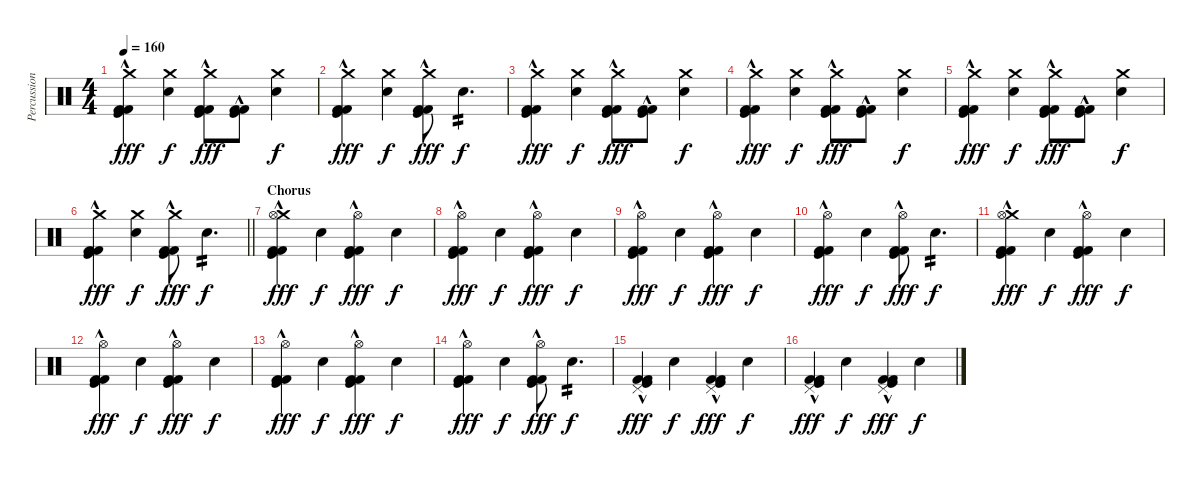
\track ("Percussion" "Percussion") {instrument percussion}
\staff {score}
\articulation defaults
\ts (4 4)
\tempo 160
\clef neutral
\ks c
("Crash medium (hit)" "Kick (hit) 2"{hac} "Kick (hit)"{hac} "Kick (hit) 2").4{dy fff} ("Crash medium (hit)" "Snare (hit) 2").4{dy f} ("Crash medium (hit)" "Kick (hit) 2"{hac} "Kick (hit)"{hac} "Kick (hit) 2").8{dy fff} ("Kick (hit) 2"{hac} "Kick (hit)"{hac} "Kick (hit) 2").8 ("Crash medium (hit)" "Snare (hit) 2").4{dy f} |
("Crash medium (hit)" "Kick (hit) 2"{hac} "Kick (hit)"{hac} "Kick (hit) 2").4{dy fff} ("Crash medium (hit)" "Snare (hit) 2").4{dy f} ("Crash medium (hit)" "Kick (hit) 2"{hac} "Kick (hit)"{hac} "Kick (hit) 2").8{dy fff} "Snare (hit) 2".4{d tp 2 dy f} |
("Crash medium (hit)" "Kick (hit) 2"{hac} "Kick (hit)"{hac} "Kick (hit) 2").4{dy fff} ("Crash medium (hit)" "Snare (hit) 2").4{dy f} ("Crash medium (hit)" "Kick (hit) 2"{hac} "Kick (hit)"{hac} "Kick (hit) 2").8{dy fff} ("Kick (hit) 2"{hac} "Kick (hit)"{hac} "Kick (hit) 2").8 ("Crash medium (hit)" "Snare (hit) 2").4{dy f} |
("Crash medium (hit)" "Kick (hit) 2"{hac} "Kick (hit)"{hac} "Kick (hit) 2").4{dy fff} ("Crash medium (hit)" "Snare (hit) 2").4{dy f} ("Crash medium (hit)" "Kick (hit) 2"{hac} "Kick (hit)"{hac} "Kick (hit) 2").8{dy fff} ("Kick (hit) 2"{hac} "Kick (hit)"{hac} "Kick (hit) 2").8 ("Crash medium (hit)" "Snare (hit) 2").4{dy f} |
("Crash medium (hit)" "Kick (hit) 2"{hac} "Kick (hit)"{hac} "Kick (hit) 2").4{dy fff} ("Crash medium (hit)" "Snare (hit) 2").4{dy f} ("Crash medium (hit)" "Kick (hit) 2"{hac} "Kick (hit)"{hac} "Kick (hit) 2").8{dy fff} ("Kick (hit) 2"{hac} "Kick (hit)"{hac} "Kick (hit) 2").8 ("Crash medium (hit)" "Snare (hit) 2").4{dy f} |
\barLineRight lightlight
("Crash medium (hit)" "Kick (hit) 2"{hac} "Kick (hit)"{hac} "Kick (hit) 2").4{dy fff} ("Crash medium (hit)" "Snare (hit) 2").4{dy f} ("Crash medium (hit)" "Kick (hit) 2"{hac} "Kick (hit)"{hac} "Kick (hit) 2").8{dy fff} "Snare (hit) 2".4{d tp 2 dy f} |
\section ("" "Chorus")
("Crash medium (hit)" "Hi-Hat (open)" "Kick (hit) 2"{hac} "Kick (hit)"{hac} "Kick (hit) 2").4{dy fff} "Snare (hit) 2".4{dy f} ("Hi-Hat (open)" "Kick (hit) 2"{hac} "Kick (hit)"{hac} "Kick (hit) 2").4{dy fff} "Snare (hit) 2".4{dy f} |
("Hi-Hat (open)" "Kick (hit) 2"{hac} "Kick (hit)"{hac} "Kick (hit) 2").4{dy fff} "Snare (hit) 2".4{dy f} ("Hi-Hat (open)" "Kick (hit) 2"{hac} "Kick (hit)"{hac} "Kick (hit) 2").4{dy fff} "Snare (hit) 2".4{dy f} |
("Hi-Hat (open)" "Kick (hit) 2"{hac} "Kick (hit)"{hac} "Kick (hit) 2").4{dy fff} "Snare (hit) 2".4{dy f} ("Hi-Hat (open)" "Kick (hit) 2"{hac} "Kick (hit)"{hac} "Kick (hit) 2").4{dy fff} "Snare (hit) 2".4{dy f} |
("Hi-Hat (open)" "Kick (hit) 2"{hac} "Kick (hit)"{hac} "Kick (hit) 2").4{dy fff} "Snare (hit) 2".4{dy f} ("Hi-Hat (open)" "Kick (hit) 2"{hac} "Kick (hit)"{hac} "Kick (hit) 2").8{dy fff} "Snare (hit) 2".4{d tp 2 dy f} |
("Crash medium (hit)" "Hi-Hat (open)" "Kick (hit) 2"{hac} "Kick (hit)"{hac} "Kick (hit) 2").4{dy fff} "Snare (hit) 2".4{dy f} ("Hi-Hat (open)" "Kick (hit) 2"{hac} "Kick (hit)"{hac} "Kick (hit) 2").4{dy fff} "Snare (hit) 2".4{dy f} |
("Hi-Hat (open)" "Kick (hit) 2"{hac} "Kick (hit)"{hac} "Kick (hit) 2").4{dy fff} "Snare (hit) 2".4{dy f} ("Hi-Hat (open)" "Kick (hit) 2"{hac} "Kick (hit)"{hac} "Kick (hit) 2").4{dy fff} "Snare (hit) 2".4{dy f} |
("Hi-Hat (open)" "Kick (hit) 2"{hac} "Kick (hit)"{hac} "Kick (hit) 2").4{dy fff} "Snare (hit) 2".4{dy f} ("Hi-Hat (open)" "Kick (hit) 2"{hac} "Kick (hit)"{hac} "Kick (hit) 2").4{dy fff} "Snare (hit) 2".4{dy f} |
("Hi-Hat (open)" "Kick (hit) 2"{hac} "Kick (hit)"{hac} "Kick (hit) 2").4{dy fff} "Snare (hit) 2".4{dy f} ("Hi-Hat (open)" "Kick (hit) 2"{hac} "Kick (hit)"{hac} "Kick (hit) 2").8{dy fff} "Snare (hit) 2".4{d tp 2 dy f} |
("Pedal Hi-Hat (hit)" "Kick (hit) 2"{hac} "Kick (hit)"{hac} "Kick (hit) 2").4{dy fff} "Snare (hit) 2".4{dy f} ("Pedal Hi-Hat (hit)" "Kick (hit) 2"{hac} "Kick (hit)"{hac} "Kick (hit) 2").4{dy fff} "Snare (hit) 2".4{dy f} |
("Pedal Hi-Hat (hit)" "Kick (hit) 2"{hac} "Kick (hit)"{hac} "Kick (hit) 2").4{dy fff} "Snare (hit) 2".4{dy f} ("Pedal Hi-Hat (hit)" "Kick (hit) 2"{hac} "Kick (hit)"{hac} "Kick (hit) 2").4{dy fff} "Snare (hit) 2".4{dy f}
